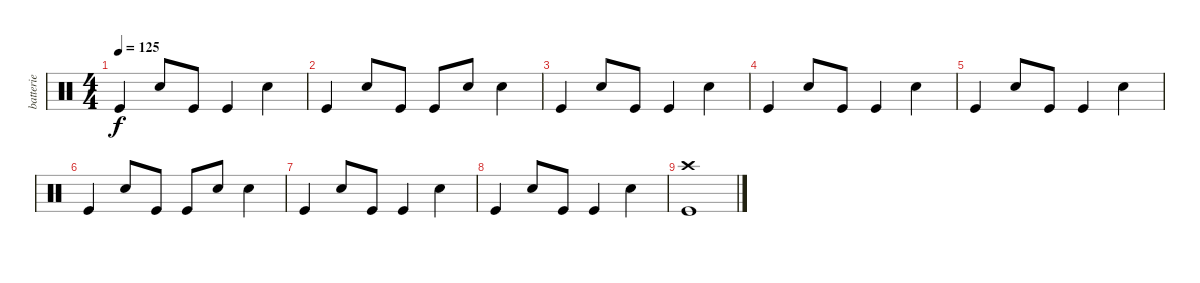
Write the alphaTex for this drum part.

\track ("batterie" "batterie") {instrument percussion}
\staff {score}
\articulation defaults
\ts (4 4)
\tempo 125
\clef neutral
\ks c "Kick (hit)".4{dy f} "Snare (hit) 2".8 "Kick (hit)".8 "Kick (hit)".4 "Snare (hit) 2".4
|
"Kick (hit)".4 "Snare (hit) 2".8 "Kick (hit)".8 "Kick (hit)".8 "Snare (hit) 2".8 "Snare (hit) 2".4 |
"Kick (hit)".4 "Snare (hit) 2".8 "Kick (hit)".8 "Kick (hit)".4 "Snare (hit) 2".4 |
"Kick (hit)".4 "Snare (hit) 2".8 "Kick (hit)".8 "Kick (hit)".4 "Snare (hit) 2".4 |
"Kick (hit)".4 "Snare (hit) 2".8 "Kick (hit)".8 "Kick (hit)".4 "Snare (hit) 2".4 |
"Kick (hit)".4 "Snare (hit) 2".8 "Kick (hit)".8 "Kick (hit)".8 "Snare (hit) 2".8 "Snare (hit) 2".4 |
"Kick (hit)".4 "Snare (hit) 2".8 "Kick (hit)".8 "Kick (hit)".4 "Snare (hit) 2".4 |
"Kick (hit)".4 "Snare (hit) 2".8 "Kick (hit)".8 "Kick (hit)".4 "Snare (hit) 2".4 |
("Crash high (hit)" "Kick (hit)").1
